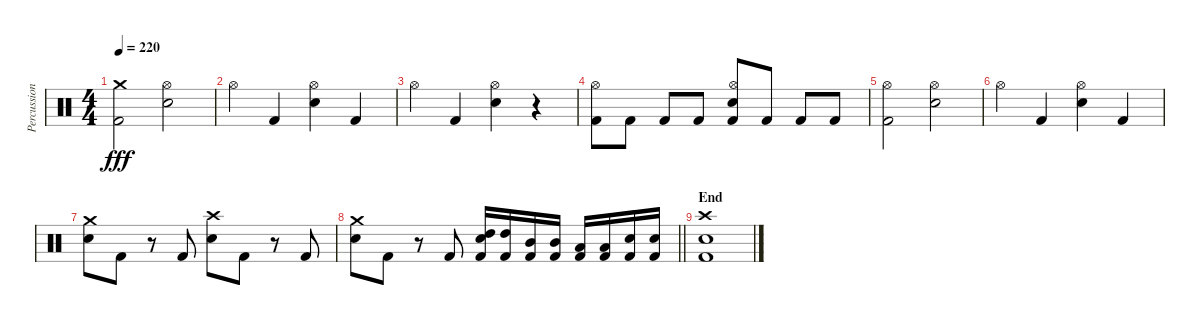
\track ("Percussion" "Percussion") {instrument percussion}
\staff {score}
\articulation defaults
\ts (4 4)
\tempo 220
\clef neutral
\ks c
("Crash medium (hit)" "Kick (hit) 2").2{dy fff} ("Hi-Hat (open)" "Electric Snare (hit)").2 |
"Hi-Hat (open)".4 "Kick (hit) 2".4 ("Hi-Hat (open)" "Electric Snare (hit)").4 "Kick (hit) 2".4 |
"Hi-Hat (open)".4 "Kick (hit) 2".4 ("Hi-Hat (open)" "Electric Snare (hit)").4 r.4 |
("Hi-Hat (open)" "Kick (hit) 2").8 "Kick (hit) 2".8 "Kick (hit) 2".8 "Kick (hit) 2".8 ("Hi-Hat (open)" "Electric Snare (hit)" "Kick (hit) 2").8 "Kick (hit) 2".8 "Kick (hit) 2".8 "Kick (hit) 2".8 |
("Hi-Hat (open)" "Kick (hit) 2").2 ("Hi-Hat (open)" "Electric Snare (hit)").2 |
"Hi-Hat (open)".4 "Kick (hit) 2".4 ("Hi-Hat (open)" "Electric Snare (hit)").4 "Kick (hit) 2".4 |
("Crash medium (hit)" "Electric Snare (hit)").8 "Kick (hit) 2".8 r.8 "Kick (hit) 2".8 ("Crash high (hit)" "Electric Snare (hit)").8 "Kick (hit) 2".8 r.8 "Kick (hit) 2".8 |
\barLineRight lightlight
("Crash medium (hit)" "Electric Snare (hit)").8 "Kick (hit) 2".8 r.8 "Kick (hit) 2".8 ("High Tom (hit)" "Electric Snare (hit)" "Kick (hit) 2").16 ("High Tom (hit)" "Kick (hit) 2").16 ("Mid Tom (hit)" "Kick (hit) 2").16 ("Mid Tom (hit)" "Kick (hit) 2").16 ("Low Tom (hit)" "Kick (hit) 2").16 ("Low Tom (hit)" "Kick (hit) 2").16 ("Electric Snare (hit)" "Kick (hit) 2").16 ("Electric Snare (hit)" "Kick (hit) 2").16 |
\section ("" "End")
("Crash high (hit)" "Electric Snare (hit)" "Kick (hit) 2").1
